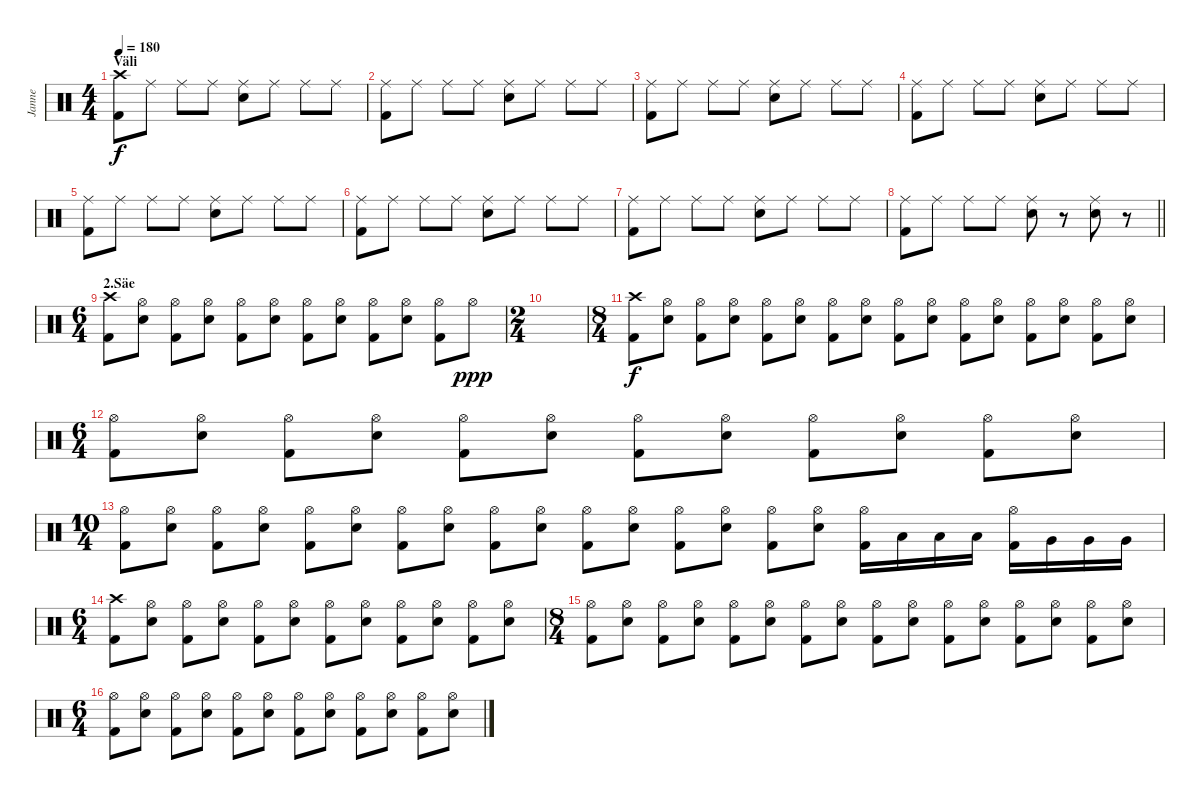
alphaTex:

\track ("Janne" "Janne") {instrument percussion}
\staff {score}
\articulation defaults
\ts (4 4)
\section ("" "Väli")
\tempo 180
\clef neutral
\ks c
("Crash high (hit)" "Kick (hit) 2").8{dy f} "Ride (middle)".8 "Ride (middle)".8 "Ride (middle)".8 ("Ride (middle)" "Electric Snare (hit)").8 "Ride (middle)".8 "Ride (middle)".8 "Ride (middle)".8 |
("Ride (middle)" "Kick (hit) 2").8 "Ride (middle)".8 "Ride (middle)".8 "Ride (middle)".8 ("Ride (middle)" "Electric Snare (hit)").8 "Ride (middle)".8 "Ride (middle)".8 "Ride (middle)".8 |
("Ride (middle)" "Kick (hit) 2").8 "Ride (middle)".8 "Ride (middle)".8 "Ride (middle)".8 ("Ride (middle)" "Electric Snare (hit)").8 "Ride (middle)".8 "Ride (middle)".8 "Ride (middle)".8 |
("Ride (middle)" "Kick (hit) 2").8 "Ride (middle)".8 "Ride (middle)".8 "Ride (middle)".8 ("Ride (middle)" "Electric Snare (hit)").8 "Ride (middle)".8 "Ride (middle)".8 "Ride (middle)".8 |
("Ride (middle)" "Kick (hit) 2").8 "Ride (middle)".8 "Ride (middle)".8 "Ride (middle)".8 ("Ride (middle)" "Electric Snare (hit)").8 "Ride (middle)".8 "Ride (middle)".8 "Ride (middle)".8 |
("Ride (middle)" "Kick (hit) 2").8 "Ride (middle)".8 "Ride (middle)".8 "Ride (middle)".8 ("Ride (middle)" "Electric Snare (hit)").8 "Ride (middle)".8 "Ride (middle)".8 "Ride (middle)".8 |
("Ride (middle)" "Kick (hit) 2").8 "Ride (middle)".8 "Ride (middle)".8 "Ride (middle)".8 ("Ride (middle)" "Electric Snare (hit)").8 "Ride (middle)".8 "Ride (middle)".8 "Ride (middle)".8 |
\barLineRight lightlight
("Ride (middle)" "Kick (hit) 2").8 "Ride (middle)".8 "Ride (middle)".8 "Ride (middle)".8 ("Ride (middle)" "Electric Snare (hit)").8 r.8 ("Ride (middle)" "Electric Snare (hit)").8 r.8 |
\ts (6 4)
\section ("" "2.Säe")
("Crash high (hit)" "Kick (hit) 2").8 ("Hi-Hat (open)" "Electric Snare (hit)").8 ("Hi-Hat (open)" "Kick (hit) 2").8 ("Hi-Hat (open)" "Electric Snare (hit)").8 ("Hi-Hat (open)" "Kick (hit) 2").8 ("Hi-Hat (open)" "Electric Snare (hit)").8 ("Hi-Hat (open)" "Kick (hit) 2").8 ("Hi-Hat (open)" "Electric Snare (hit)").8 ("Hi-Hat (open)" "Kick (hit) 2").8 ("Hi-Hat (open)" "Electric Snare (hit)").8 ("Hi-Hat (open)" "Kick (hit) 2").8 "Hi-Hat (open)".8{dy ppp} |
\ts (2 4)
|
\ts (8 4)
("Crash high (hit)" "Kick (hit) 2").8{dy f} ("Hi-Hat (open)" "Electric Snare (hit)").8 ("Hi-Hat (open)" "Kick (hit) 2").8 ("Hi-Hat (open)" "Electric Snare (hit)").8 ("Hi-Hat (open)" "Kick (hit) 2").8 ("Hi-Hat (open)" "Electric Snare (hit)").8 ("Hi-Hat (open)" "Kick (hit) 2").8 ("Hi-Hat (open)" "Electric Snare (hit)").8 ("Hi-Hat (open)" "Kick (hit) 2").8 ("Hi-Hat (open)" "Electric Snare (hit)").8 ("Hi-Hat (open)" "Kick (hit) 2").8 ("Hi-Hat (open)" "Electric Snare (hit)").8 ("Hi-Hat (open)" "Kick (hit) 2").8 ("Hi-Hat (open)" "Electric Snare (hit)").8 ("Hi-Hat (open)" "Kick (hit) 2").8 ("Hi-Hat (open)" "Electric Snare (hit)").8 |
\ts (6 4)
("Hi-Hat (open)" "Kick (hit) 2").8 ("Hi-Hat (open)" "Electric Snare (hit)").8 ("Hi-Hat (open)" "Kick (hit) 2").8 ("Hi-Hat (open)" "Electric Snare (hit)").8 ("Hi-Hat (open)" "Kick (hit) 2").8 ("Hi-Hat (open)" "Electric Snare (hit)").8 ("Hi-Hat (open)" "Kick (hit) 2").8 ("Hi-Hat (open)" "Electric Snare (hit)").8 ("Hi-Hat (open)" "Kick (hit) 2").8 ("Hi-Hat (open)" "Electric Snare (hit)").8 ("Hi-Hat (open)" "Kick (hit) 2").8 ("Hi-Hat (open)" "Electric Snare (hit)").8 |
\ts (10 4)
("Hi-Hat (open)" "Kick (hit) 2").8 ("Hi-Hat (open)" "Electric Snare (hit)").8 ("Hi-Hat (open)" "Kick (hit) 2").8 ("Hi-Hat (open)" "Electric Snare (hit)").8 ("Hi-Hat (open)" "Kick (hit) 2").8 ("Hi-Hat (open)" "Electric Snare (hit)").8 ("Hi-Hat (open)" "Kick (hit) 2").8 ("Hi-Hat (open)" "Electric Snare (hit)").8 ("Hi-Hat (open)" "Kick (hit) 2").8 ("Hi-Hat (open)" "Electric Snare (hit)").8 ("Hi-Hat (open)" "Kick (hit) 2").8 ("Hi-Hat (open)" "Electric Snare (hit)").8 ("Hi-Hat (open)" "Kick (hit) 2").8 ("Hi-Hat (open)" "Electric Snare (hit)").8 ("Hi-Hat (open)" "Kick (hit) 2").8 ("Hi-Hat (open)" "Electric Snare (hit)").8 ("Hi-Hat (open)" "Kick (hit) 2").16 "Low Tom (hit)".16 "Low Tom (hit)".16 "Low Tom (hit)".16 ("Hi-Hat (open)" "Kick (hit) 2").16 "Very Low Tom (hit)".16 "Very Low Tom (hit)".16 "Very Low Tom (hit)".16 |
\ts (6 4)
("Crash high (hit)" "Kick (hit) 2").8 ("Hi-Hat (open)" "Electric Snare (hit)").8 ("Hi-Hat (open)" "Kick (hit) 2").8 ("Hi-Hat (open)" "Electric Snare (hit)").8 ("Hi-Hat (open)" "Kick (hit) 2").8 ("Hi-Hat (open)" "Electric Snare (hit)").8 ("Hi-Hat (open)" "Kick (hit) 2").8 ("Hi-Hat (open)" "Electric Snare (hit)").8 ("Hi-Hat (open)" "Kick (hit) 2").8 ("Hi-Hat (open)" "Electric Snare (hit)").8 ("Hi-Hat (open)" "Kick (hit) 2").8 ("Hi-Hat (open)" "Electric Snare (hit)").8 |
\ts (8 4)
("Hi-Hat (open)" "Kick (hit) 2").8 ("Hi-Hat (open)" "Electric Snare (hit)").8 ("Hi-Hat (open)" "Kick (hit) 2").8 ("Hi-Hat (open)" "Electric Snare (hit)").8 ("Hi-Hat (open)" "Kick (hit) 2").8 ("Hi-Hat (open)" "Electric Snare (hit)").8 ("Hi-Hat (open)" "Kick (hit) 2").8 ("Hi-Hat (open)" "Electric Snare (hit)").8 ("Hi-Hat (open)" "Kick (hit) 2").8 ("Hi-Hat (open)" "Electric Snare (hit)").8 ("Hi-Hat (open)" "Kick (hit) 2").8 ("Hi-Hat (open)" "Electric Snare (hit)").8 ("Hi-Hat (open)" "Kick (hit) 2").8 ("Hi-Hat (open)" "Electric Snare (hit)").8 ("Hi-Hat (open)" "Kick (hit) 2").8 ("Hi-Hat (open)" "Electric Snare (hit)").8 |
\ts (6 4)
("Hi-Hat (open)" "Kick (hit) 2").8 ("Hi-Hat (open)" "Electric Snare (hit)").8 ("Hi-Hat (open)" "Kick (hit) 2").8 ("Hi-Hat (open)" "Electric Snare (hit)").8 ("Hi-Hat (open)" "Kick (hit) 2").8 ("Hi-Hat (open)" "Electric Snare (hit)").8 ("Hi-Hat (open)" "Kick (hit) 2").8 ("Hi-Hat (open)" "Electric Snare (hit)").8 ("Hi-Hat (open)" "Kick (hit) 2").8 ("Hi-Hat (open)" "Electric Snare (hit)").8 ("Hi-Hat (open)" "Kick (hit) 2").8 ("Hi-Hat (open)" "Electric Snare (hit)").8
